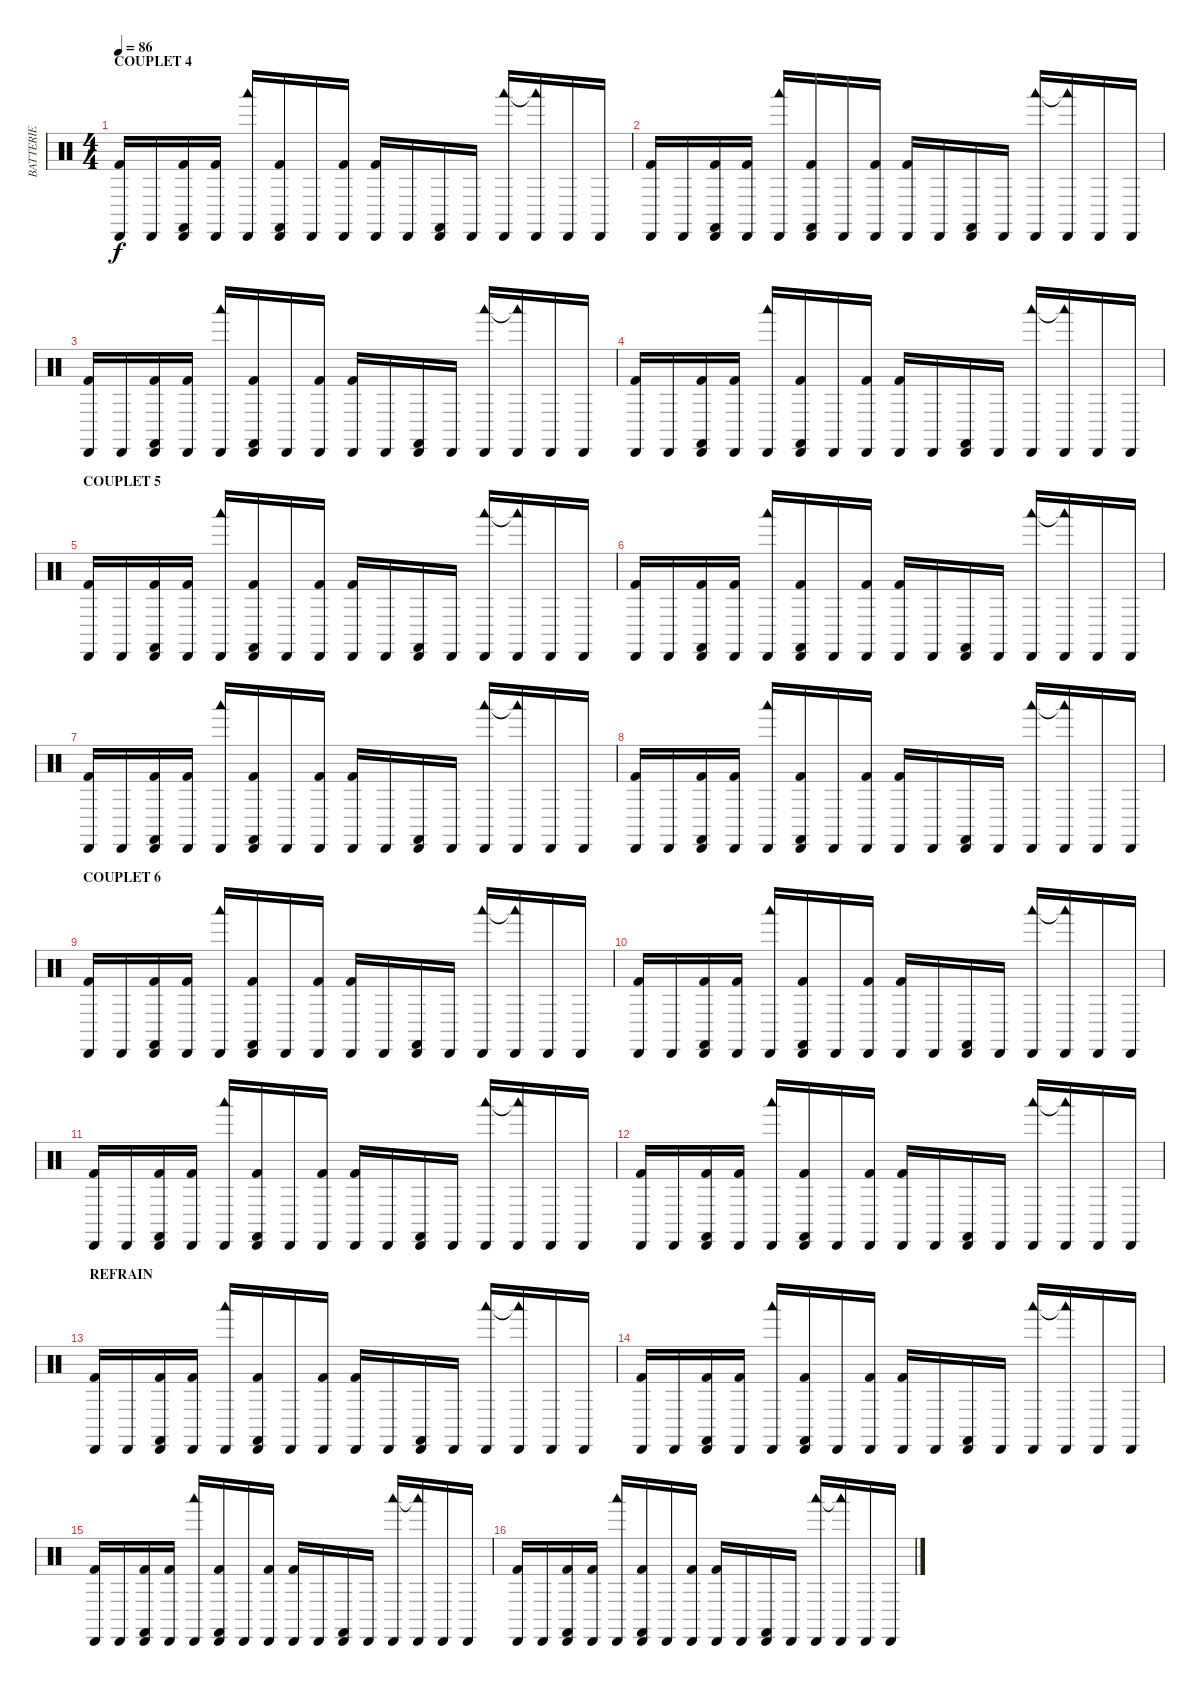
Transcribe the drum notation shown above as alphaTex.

\track ("BATTERIE" "BATTERIE") {instrument percussion}
\staff {score}
\articulation defaults
\ts (4 4)
\section ("" "COUPLET 4")
\tempo 86
\clef neutral
\ks c
("Cabasa (hit)" "Kick (hit) 2").16{dy f} "Cabasa (hit)".16 ("Cabasa (hit)" "Castanets (hit)" "Kick (hit) 2").16 ("Cabasa (hit)" "Kick (hit) 2").16 ("Cabasa (hit)" "Woodblock low (hit)").16 ("Cabasa (hit)" "Castanets (hit)" "Kick (hit) 2").16 "Cabasa (hit)".16 ("Cabasa (hit)" "Kick (hit) 2").16 ("Cabasa (hit)" "Kick (hit) 2").16 "Cabasa (hit)".16 ("Cabasa (hit)" "Castanets (hit)").16 "Cabasa (hit)".16 ("Cabasa (hit)" "Woodblock low (hit)").16 ("Cabasa (hit)" "Woodblock low (hit)"{t}).16 "Cabasa (hit)".16 "Cabasa (hit)".16 |
("Cabasa (hit)" "Kick (hit) 2").16 "Cabasa (hit)".16 ("Cabasa (hit)" "Castanets (hit)" "Kick (hit) 2").16 ("Cabasa (hit)" "Kick (hit) 2").16 ("Cabasa (hit)" "Woodblock low (hit)").16 ("Cabasa (hit)" "Castanets (hit)" "Kick (hit) 2").16 "Cabasa (hit)".16 ("Cabasa (hit)" "Kick (hit) 2").16 ("Cabasa (hit)" "Kick (hit) 2").16 "Cabasa (hit)".16 ("Cabasa (hit)" "Castanets (hit)").16 "Cabasa (hit)".16 ("Cabasa (hit)" "Woodblock low (hit)").16 ("Cabasa (hit)" "Woodblock low (hit)"{t}).16 "Cabasa (hit)".16 "Cabasa (hit)".16 |
("Cabasa (hit)" "Kick (hit) 2").16 "Cabasa (hit)".16 ("Cabasa (hit)" "Castanets (hit)" "Kick (hit) 2").16 ("Cabasa (hit)" "Kick (hit) 2").16 ("Cabasa (hit)" "Woodblock low (hit)").16 ("Cabasa (hit)" "Castanets (hit)" "Kick (hit) 2").16 "Cabasa (hit)".16 ("Cabasa (hit)" "Kick (hit) 2").16 ("Cabasa (hit)" "Kick (hit) 2").16 "Cabasa (hit)".16 ("Cabasa (hit)" "Castanets (hit)").16 "Cabasa (hit)".16 ("Cabasa (hit)" "Woodblock low (hit)").16 ("Cabasa (hit)" "Woodblock low (hit)"{t}).16 "Cabasa (hit)".16 "Cabasa (hit)".16 |
("Cabasa (hit)" "Kick (hit) 2").16 "Cabasa (hit)".16 ("Cabasa (hit)" "Castanets (hit)" "Kick (hit) 2").16 ("Cabasa (hit)" "Kick (hit) 2").16 ("Cabasa (hit)" "Woodblock low (hit)").16 ("Cabasa (hit)" "Castanets (hit)" "Kick (hit) 2").16 "Cabasa (hit)".16 ("Cabasa (hit)" "Kick (hit) 2").16 ("Cabasa (hit)" "Kick (hit) 2").16 "Cabasa (hit)".16 ("Cabasa (hit)" "Castanets (hit)").16 "Cabasa (hit)".16 ("Cabasa (hit)" "Woodblock low (hit)").16 ("Cabasa (hit)" "Woodblock low (hit)"{t}).16 "Cabasa (hit)".16 "Cabasa (hit)".16 |
\section ("" "COUPLET 5")
("Cabasa (hit)" "Kick (hit) 2").16 "Cabasa (hit)".16 ("Cabasa (hit)" "Castanets (hit)" "Kick (hit) 2").16 ("Cabasa (hit)" "Kick (hit) 2").16 ("Cabasa (hit)" "Woodblock low (hit)").16 ("Cabasa (hit)" "Castanets (hit)" "Kick (hit) 2").16 "Cabasa (hit)".16 ("Cabasa (hit)" "Kick (hit) 2").16 ("Cabasa (hit)" "Kick (hit) 2").16 "Cabasa (hit)".16 ("Cabasa (hit)" "Castanets (hit)").16 "Cabasa (hit)".16 ("Cabasa (hit)" "Woodblock low (hit)").16 ("Cabasa (hit)" "Woodblock low (hit)"{t}).16 "Cabasa (hit)".16 "Cabasa (hit)".16 |
("Cabasa (hit)" "Kick (hit) 2").16 "Cabasa (hit)".16 ("Cabasa (hit)" "Castanets (hit)" "Kick (hit) 2").16 ("Cabasa (hit)" "Kick (hit) 2").16 ("Cabasa (hit)" "Woodblock low (hit)").16 ("Cabasa (hit)" "Castanets (hit)" "Kick (hit) 2").16 "Cabasa (hit)".16 ("Cabasa (hit)" "Kick (hit) 2").16 ("Cabasa (hit)" "Kick (hit) 2").16 "Cabasa (hit)".16 ("Cabasa (hit)" "Castanets (hit)").16 "Cabasa (hit)".16 ("Cabasa (hit)" "Woodblock low (hit)").16 ("Cabasa (hit)" "Woodblock low (hit)"{t}).16 "Cabasa (hit)".16 "Cabasa (hit)".16 |
("Cabasa (hit)" "Kick (hit) 2").16 "Cabasa (hit)".16 ("Cabasa (hit)" "Castanets (hit)" "Kick (hit) 2").16 ("Cabasa (hit)" "Kick (hit) 2").16 ("Cabasa (hit)" "Woodblock low (hit)").16 ("Cabasa (hit)" "Castanets (hit)" "Kick (hit) 2").16 "Cabasa (hit)".16 ("Cabasa (hit)" "Kick (hit) 2").16 ("Cabasa (hit)" "Kick (hit) 2").16 "Cabasa (hit)".16 ("Cabasa (hit)" "Castanets (hit)").16 "Cabasa (hit)".16 ("Cabasa (hit)" "Woodblock low (hit)").16 ("Cabasa (hit)" "Woodblock low (hit)"{t}).16 "Cabasa (hit)".16 "Cabasa (hit)".16 |
("Cabasa (hit)" "Kick (hit) 2").16 "Cabasa (hit)".16 ("Cabasa (hit)" "Castanets (hit)" "Kick (hit) 2").16 ("Cabasa (hit)" "Kick (hit) 2").16 ("Cabasa (hit)" "Woodblock low (hit)").16 ("Cabasa (hit)" "Castanets (hit)" "Kick (hit) 2").16 "Cabasa (hit)".16 ("Cabasa (hit)" "Kick (hit) 2").16 ("Cabasa (hit)" "Kick (hit) 2").16 "Cabasa (hit)".16 ("Cabasa (hit)" "Castanets (hit)").16 "Cabasa (hit)".16 ("Cabasa (hit)" "Woodblock low (hit)").16 ("Cabasa (hit)" "Woodblock low (hit)"{t}).16 "Cabasa (hit)".16 "Cabasa (hit)".16 |
\section ("" "COUPLET 6")
("Cabasa (hit)" "Kick (hit) 2").16 "Cabasa (hit)".16 ("Cabasa (hit)" "Castanets (hit)" "Kick (hit) 2").16 ("Cabasa (hit)" "Kick (hit) 2").16 ("Cabasa (hit)" "Woodblock low (hit)").16 ("Cabasa (hit)" "Castanets (hit)" "Kick (hit) 2").16 "Cabasa (hit)".16 ("Cabasa (hit)" "Kick (hit) 2").16 ("Cabasa (hit)" "Kick (hit) 2").16 "Cabasa (hit)".16 ("Cabasa (hit)" "Castanets (hit)").16 "Cabasa (hit)".16 ("Cabasa (hit)" "Woodblock low (hit)").16 ("Cabasa (hit)" "Woodblock low (hit)"{t}).16 "Cabasa (hit)".16 "Cabasa (hit)".16 |
("Cabasa (hit)" "Kick (hit) 2").16 "Cabasa (hit)".16 ("Cabasa (hit)" "Castanets (hit)" "Kick (hit) 2").16 ("Cabasa (hit)" "Kick (hit) 2").16 ("Cabasa (hit)" "Woodblock low (hit)").16 ("Cabasa (hit)" "Castanets (hit)" "Kick (hit) 2").16 "Cabasa (hit)".16 ("Cabasa (hit)" "Kick (hit) 2").16 ("Cabasa (hit)" "Kick (hit) 2").16 "Cabasa (hit)".16 ("Cabasa (hit)" "Castanets (hit)").16 "Cabasa (hit)".16 ("Cabasa (hit)" "Woodblock low (hit)").16 ("Cabasa (hit)" "Woodblock low (hit)"{t}).16 "Cabasa (hit)".16 "Cabasa (hit)".16 |
("Cabasa (hit)" "Kick (hit) 2").16 "Cabasa (hit)".16 ("Cabasa (hit)" "Castanets (hit)" "Kick (hit) 2").16 ("Cabasa (hit)" "Kick (hit) 2").16 ("Cabasa (hit)" "Woodblock low (hit)").16 ("Cabasa (hit)" "Castanets (hit)" "Kick (hit) 2").16 "Cabasa (hit)".16 ("Cabasa (hit)" "Kick (hit) 2").16 ("Cabasa (hit)" "Kick (hit) 2").16 "Cabasa (hit)".16 ("Cabasa (hit)" "Castanets (hit)").16 "Cabasa (hit)".16 ("Cabasa (hit)" "Woodblock low (hit)").16 ("Cabasa (hit)" "Woodblock low (hit)"{t}).16 "Cabasa (hit)".16 "Cabasa (hit)".16 |
("Cabasa (hit)" "Kick (hit) 2").16 "Cabasa (hit)".16 ("Cabasa (hit)" "Castanets (hit)" "Kick (hit) 2").16 ("Cabasa (hit)" "Kick (hit) 2").16 ("Cabasa (hit)" "Woodblock low (hit)").16 ("Cabasa (hit)" "Castanets (hit)" "Kick (hit) 2").16 "Cabasa (hit)".16 ("Cabasa (hit)" "Kick (hit) 2").16 ("Cabasa (hit)" "Kick (hit) 2").16 "Cabasa (hit)".16 ("Cabasa (hit)" "Castanets (hit)").16 "Cabasa (hit)".16 ("Cabasa (hit)" "Woodblock low (hit)").16 ("Cabasa (hit)" "Woodblock low (hit)"{t}).16 "Cabasa (hit)".16 "Cabasa (hit)".16 |
\section ("" "REFRAIN")
("Cabasa (hit)" "Kick (hit) 2").16 "Cabasa (hit)".16 ("Cabasa (hit)" "Castanets (hit)" "Kick (hit) 2").16 ("Cabasa (hit)" "Kick (hit) 2").16 ("Cabasa (hit)" "Woodblock low (hit)").16 ("Cabasa (hit)" "Castanets (hit)" "Kick (hit) 2").16 "Cabasa (hit)".16 ("Cabasa (hit)" "Kick (hit) 2").16 ("Cabasa (hit)" "Kick (hit) 2").16 "Cabasa (hit)".16 ("Cabasa (hit)" "Castanets (hit)").16 "Cabasa (hit)".16 ("Cabasa (hit)" "Woodblock low (hit)").16 ("Cabasa (hit)" "Woodblock low (hit)"{t}).16 "Cabasa (hit)".16 "Cabasa (hit)".16 |
("Cabasa (hit)" "Kick (hit) 2").16 "Cabasa (hit)".16 ("Cabasa (hit)" "Castanets (hit)" "Kick (hit) 2").16 ("Cabasa (hit)" "Kick (hit) 2").16 ("Cabasa (hit)" "Woodblock low (hit)").16 ("Cabasa (hit)" "Castanets (hit)" "Kick (hit) 2").16 "Cabasa (hit)".16 ("Cabasa (hit)" "Kick (hit) 2").16 ("Cabasa (hit)" "Kick (hit) 2").16 "Cabasa (hit)".16 ("Cabasa (hit)" "Castanets (hit)").16 "Cabasa (hit)".16 ("Cabasa (hit)" "Woodblock low (hit)").16 ("Cabasa (hit)" "Woodblock low (hit)"{t}).16 "Cabasa (hit)".16 "Cabasa (hit)".16 |
("Cabasa (hit)" "Kick (hit) 2").16 "Cabasa (hit)".16 ("Cabasa (hit)" "Castanets (hit)" "Kick (hit) 2").16 ("Cabasa (hit)" "Kick (hit) 2").16 ("Cabasa (hit)" "Woodblock low (hit)").16 ("Cabasa (hit)" "Castanets (hit)" "Kick (hit) 2").16 "Cabasa (hit)".16 ("Cabasa (hit)" "Kick (hit) 2").16 ("Cabasa (hit)" "Kick (hit) 2").16 "Cabasa (hit)".16 ("Cabasa (hit)" "Castanets (hit)").16 "Cabasa (hit)".16 ("Cabasa (hit)" "Woodblock low (hit)").16 ("Cabasa (hit)" "Woodblock low (hit)"{t}).16 "Cabasa (hit)".16 "Cabasa (hit)".16 |
("Cabasa (hit)" "Kick (hit) 2").16 "Cabasa (hit)".16 ("Cabasa (hit)" "Castanets (hit)" "Kick (hit) 2").16 ("Cabasa (hit)" "Kick (hit) 2").16 ("Cabasa (hit)" "Woodblock low (hit)").16 ("Cabasa (hit)" "Castanets (hit)" "Kick (hit) 2").16 "Cabasa (hit)".16 ("Cabasa (hit)" "Kick (hit) 2").16 ("Cabasa (hit)" "Kick (hit) 2").16 "Cabasa (hit)".16 ("Cabasa (hit)" "Castanets (hit)").16 "Cabasa (hit)".16 ("Cabasa (hit)" "Woodblock low (hit)").16 ("Cabasa (hit)" "Woodblock low (hit)"{t}).16 "Cabasa (hit)".16 "Cabasa (hit)".16
